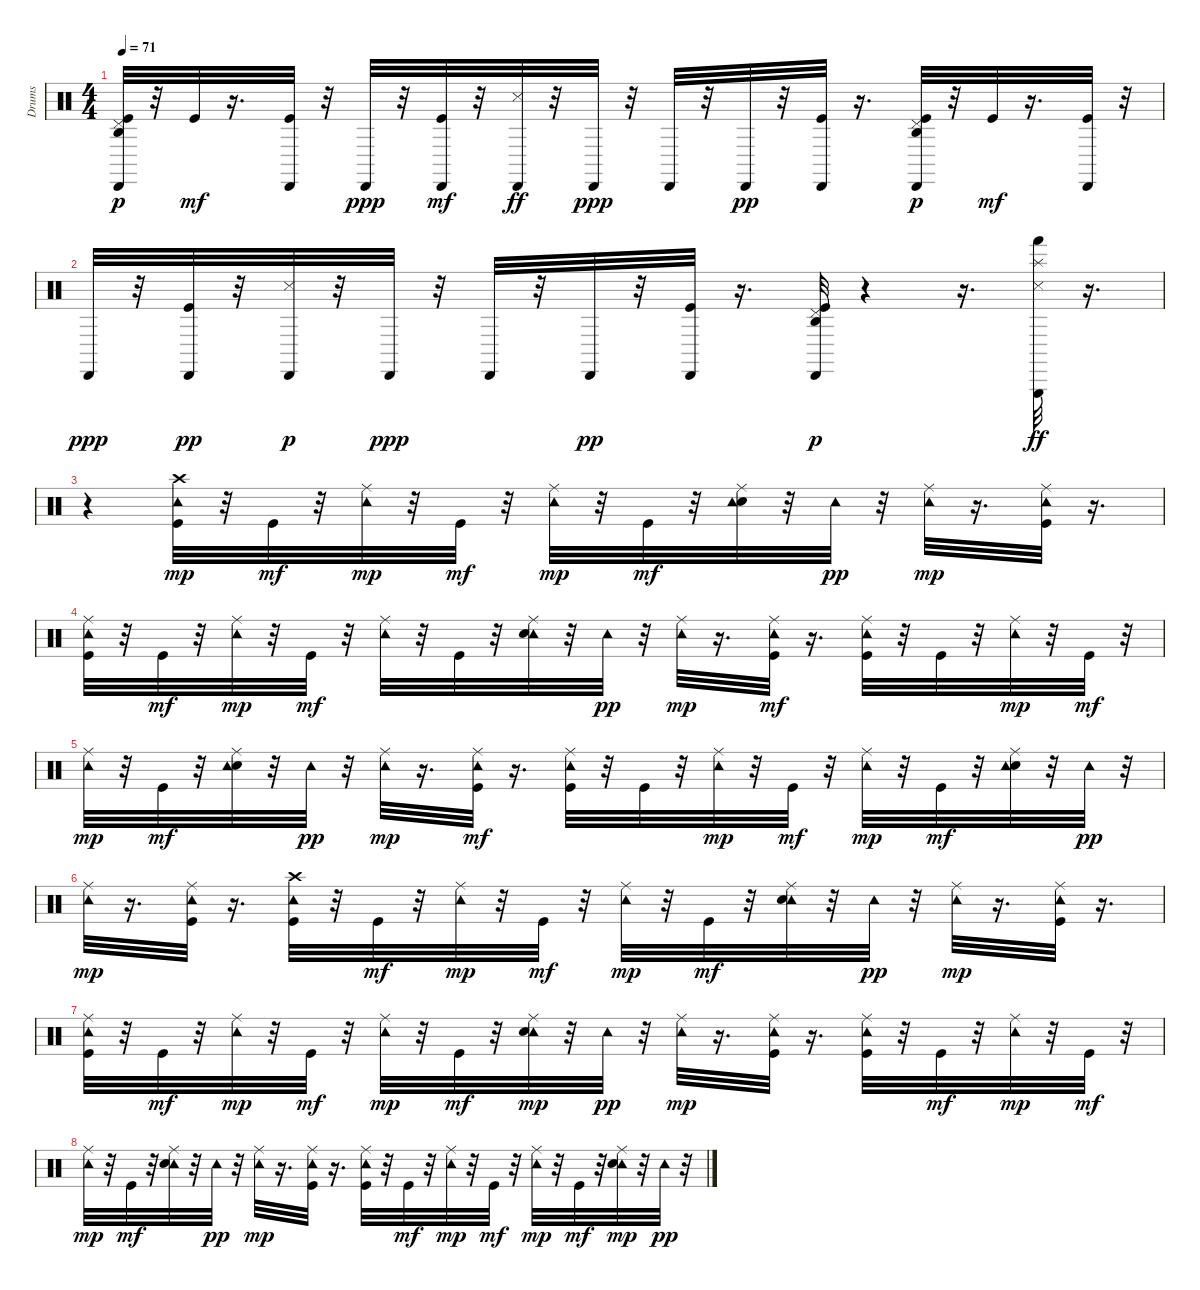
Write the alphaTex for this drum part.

\track ("Drums" "Drums") {instrument percussion}
\staff {score}
\articulation defaults
\ts (4 4)
\tempo 71
\clef neutral
\ks c
("Kick (hit)" "Pedal Hi-Hat (hit)" "Cabasa (hit)" "Agogo high (hit)").32{dy p} r.32 "Kick (hit)".32{dy mf} r.16{d} ("Cabasa (hit)" "Kick (hit)").32 r.32 "Cabasa (hit)".32{dy ppp} r.32 ("Cabasa (hit)" "Kick (hit)").32{dy mf} r.32 ("Cabasa (hit)" "Metronome (hit)").32{dy ff} r.32 "Cabasa (hit)".32{dy ppp} r.32 "Cabasa (hit)".32 r.32 "Cabasa (hit)".32{dy pp} r.32 ("Kick (hit)" "Cabasa (hit)").32 r.16{d} ("Pedal Hi-Hat (hit)" "Cabasa (hit)" "Agogo high (hit)" "Kick (hit)").32{dy p} r.32 "Kick (hit)".32{dy mf} r.16{d} ("Cabasa (hit)" "Kick (hit)").32 r.32 |
"Cabasa (hit)".32{dy ppp} r.32 ("Kick (hit)" "Cabasa (hit)").32{dy pp} r.32 ("Metronome (hit)" "Cabasa (hit)").32{dy p} r.32 "Cabasa (hit)".32{dy ppp} r.32 "Cabasa (hit)".32 r.32 "Cabasa (hit)".32{dy pp} r.32 ("Kick (hit)" "Cabasa (hit)").32 r.16{d} ("Cabasa (hit)" "Agogo high (hit)" "Pedal Hi-Hat (hit)" "Kick (hit)").32{dy p} r.4 r.16{d} ("Splash (hit)" "Triangle (hit)" "Metronome (hit)" "Hand (hit)").32{dy ff} r.16{d} |
r.4 ("Crash high (hit)" "Kick (hit)" "Tambourine (hit)").32{dy mp} r.32 "Kick (hit)".32{dy mf} r.32 ("Tambourine (hit)" "Ride (middle)").32{dy mp} r.32 "Kick (hit)".32{dy mf} r.32 ("Tambourine (hit)" "Ride (middle)").32{dy mp} r.32 "Kick (hit)".32{dy mf} r.32 ("Snare (hit) 2" "Tambourine (hit)" "Ride (middle)").32 r.32 "Tambourine (hit)".32{dy pp} r.32 ("Tambourine (hit)" "Ride (middle)").32{dy mp} r.16{d} ("Kick (hit)" "Tambourine (hit)" "Ride (middle)").32 r.16{d} |
("Tambourine (hit)" "Kick (hit)" "Ride (middle)").32 r.32 "Kick (hit)".32{dy mf} r.32 ("Tambourine (hit)" "Ride (middle)").32{dy mp} r.32 "Kick (hit)".32{dy mf} r.32 ("Tambourine (hit)" "Ride (middle)").32 r.32 "Kick (hit)".32 r.32 ("Tambourine (hit)" "Snare (hit) 2" "Ride (middle)").32 r.32 "Tambourine (hit)".32{dy pp} r.32 ("Tambourine (hit)" "Ride (middle)").32{dy mp} r.16{d} ("Tambourine (hit)" "Kick (hit)" "Ride (middle)").32{dy mf} r.16{d} ("Tambourine (hit)" "Kick (hit)" "Ride (middle)").32 r.32 "Kick (hit)".32 r.32 ("Tambourine (hit)" "Ride (middle)").32{dy mp} r.32 "Kick (hit)".32{dy mf} r.32 |
("Tambourine (hit)" "Ride (middle)").32{dy mp} r.32 "Kick (hit)".32{dy mf} r.32 ("Snare (hit) 2" "Tambourine (hit)" "Ride (middle)").32 r.32 "Tambourine (hit)".32{dy pp} r.32 ("Tambourine (hit)" "Ride (middle)").32{dy mp} r.16{d} ("Kick (hit)" "Tambourine (hit)" "Ride (middle)").32{dy mf} r.16{d} ("Kick (hit)" "Tambourine (hit)" "Ride (middle)").32 r.32 "Kick (hit)".32 r.32 ("Tambourine (hit)" "Ride (middle)").32{dy mp} r.32 "Kick (hit)".32{dy mf} r.32 ("Tambourine (hit)" "Ride (middle)").32{dy mp} r.32 "Kick (hit)".32{dy mf} r.32 ("Snare (hit) 2" "Tambourine (hit)" "Ride (middle)").32 r.32 "Tambourine (hit)".32{dy pp} r.32 |
("Tambourine (hit)" "Ride (middle)").32{dy mp} r.16{d} ("Tambourine (hit)" "Kick (hit)" "Ride (middle)").32 r.16{d} ("Kick (hit)" "Crash high (hit)" "Tambourine (hit)").32 r.32 "Kick (hit)".32{dy mf} r.32 ("Tambourine (hit)" "Ride (middle)").32{dy mp} r.32 "Kick (hit)".32{dy mf} r.32 ("Tambourine (hit)" "Ride (middle)").32{dy mp} r.32 "Kick (hit)".32{dy mf} r.32 ("Tambourine (hit)" "Snare (hit) 2" "Ride (middle)").32 r.32 "Tambourine (hit)".32{dy pp} r.32 ("Tambourine (hit)" "Ride (middle)").32{dy mp} r.16{d} ("Tambourine (hit)" "Kick (hit)" "Ride (middle)").32 r.16{d} |
("Kick (hit)" "Tambourine (hit)" "Ride (middle)").32 r.32 "Kick (hit)".32{dy mf} r.32 ("Tambourine (hit)" "Ride (middle)").32{dy mp} r.32 "Kick (hit)".32{dy mf} r.32 ("Tambourine (hit)" "Ride (middle)").32{dy mp} r.32 "Kick (hit)".32{dy mf} r.32 ("Tambourine (hit)" "Snare (hit) 2" "Ride (middle)").32{dy mp} r.32 "Tambourine (hit)".32{dy pp} r.32 ("Tambourine (hit)" "Ride (middle)").32{dy mp} r.16{d} ("Tambourine (hit)" "Kick (hit)" "Ride (middle)").32 r.16{d} ("Kick (hit)" "Tambourine (hit)" "Ride (middle)").32 r.32 "Kick (hit)".32{dy mf} r.32 ("Tambourine (hit)" "Ride (middle)").32{dy mp} r.32 "Kick (hit)".32{dy mf} r.32 |
("Tambourine (hit)" "Ride (middle)").32{dy mp} r.32 "Kick (hit)".32{dy mf} r.32 ("Tambourine (hit)" "Snare (hit) 2" "Ride (middle)").32 r.32 "Tambourine (hit)".32{dy pp} r.32 ("Tambourine (hit)" "Ride (middle)").32{dy mp} r.16{d} ("Tambourine (hit)" "Kick (hit)" "Ride (middle)").32 r.16{d} ("Tambourine (hit)" "Kick (hit)" "Ride (middle)").32 r.32 "Kick (hit)".32{dy mf} r.32 ("Tambourine (hit)" "Ride (middle)").32{dy mp} r.32 "Kick (hit)".32{dy mf} r.32 ("Tambourine (hit)" "Ride (middle)").32{dy mp} r.32 "Kick (hit)".32{dy mf} r.32 ("Tambourine (hit)" "Snare (hit) 2" "Ride (middle)").32{dy mp} r.32 "Tambourine (hit)".32{dy pp} r.32
